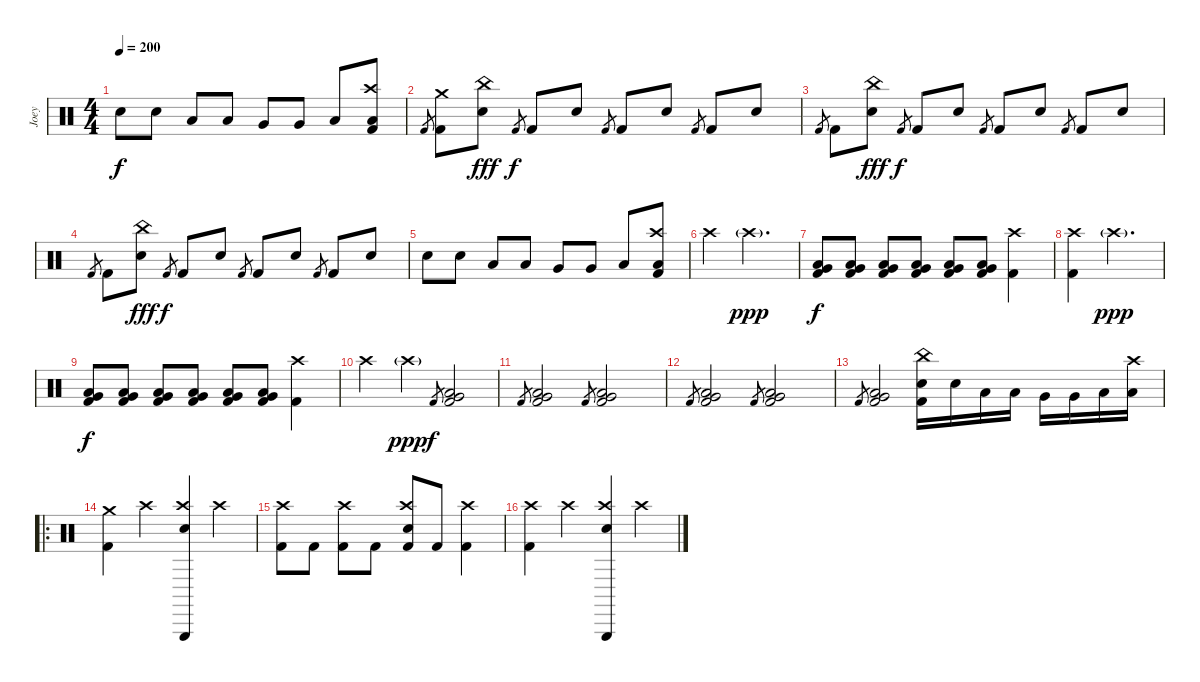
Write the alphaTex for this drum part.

\track ("Joey" "Joey") {instrument percussion}
\staff {score}
\articulation defaults
\ts (4 4)
\tempo 200
\clef neutral
\ks c "Electric Snare (hit)".8{dy f} "Electric Snare (hit)".8 "Low Tom (hit)".8 "Low Tom (hit)".8 "Very Low Tom (hit)".8 "Very Low Tom (hit)".8 "Low Floor Tom (hit)".8
("Crash high (hit)" "Low Floor Tom (hit)" "Kick (hit) 2").8 |
"Kick (hit) 2".8{gr} ("Crash medium (hit)" "Kick (hit) 2").8 ("China (hit)" "Electric Snare (hit)").8{dy fff} "Kick (hit) 2".8{gr dy f} "Kick (hit) 2".8 "Electric Snare (hit)".8 "Kick (hit) 2".8{gr} "Kick (hit) 2".8 "Electric Snare (hit)".8 "Kick (hit) 2".8{gr} "Kick (hit) 2".8 "Electric Snare (hit)".8 |
"Kick (hit) 2".8{gr} "Kick (hit) 2".8 ("China (hit)" "Electric Snare (hit)").8{dy fff} "Kick (hit) 2".8{gr dy f} "Kick (hit) 2".8 "Electric Snare (hit)".8 "Kick (hit) 2".8{gr} "Kick (hit) 2".8 "Electric Snare (hit)".8 "Kick (hit) 2".8{gr} "Kick (hit) 2".8 "Electric Snare (hit)".8 |
"Kick (hit) 2".8{gr} "Kick (hit) 2".8 ("China (hit)" "Electric Snare (hit)").8{dy fff} "Kick (hit) 2".8{gr dy f} "Kick (hit) 2".8 "Electric Snare (hit)".8 "Kick (hit) 2".8{gr} "Kick (hit) 2".8 "Electric Snare (hit)".8 "Kick (hit) 2".8{gr} "Kick (hit) 2".8 "Electric Snare (hit)".8 |
"Electric Snare (hit)".8 "Electric Snare (hit)".8 "Low Tom (hit)".8 "Low Tom (hit)".8 "Very Low Tom (hit)".8 "Very Low Tom (hit)".8 "Low Floor Tom (hit)".8 ("Crash high (hit)" "Low Floor Tom (hit)" "Kick (hit) 2").8 |
"Crash high (hit)".4 "Crash high (hit)"{g}.2{d dy ppp} |
("Low Tom (hit)" "Very Low Tom (hit)" "Kick (hit) 2").8{dy f} ("Low Tom (hit)" "Very Low Tom (hit)" "Kick (hit) 2").8 ("Low Tom (hit)" "Very Low Tom (hit)" "Kick (hit) 2").8 ("Low Tom (hit)" "Very Low Tom (hit)" "Kick (hit) 2").8 ("Low Tom (hit)" "Very Low Tom (hit)" "Kick (hit) 2").8 ("Low Tom (hit)" "Very Low Tom (hit)" "Kick (hit) 2").8 ("Crash high (hit)" "Kick (hit) 2").4 |
("Crash high (hit)" "Kick (hit) 2").4 "Crash high (hit)"{g}.2{d dy ppp} |
("Low Tom (hit)" "Very Low Tom (hit)" "Kick (hit) 2").8{dy f} ("Low Tom (hit)" "Very Low Tom (hit)" "Kick (hit) 2").8 ("Low Tom (hit)" "Very Low Tom (hit)" "Kick (hit) 2").8 ("Low Tom (hit)" "Very Low Tom (hit)" "Kick (hit) 2").8 ("Low Tom (hit)" "Very Low Tom (hit)" "Kick (hit) 2").8 ("Low Tom (hit)" "Very Low Tom (hit)" "Kick (hit) 2").8 ("Crash high (hit)" "Kick (hit) 2").4 |
"Crash high (hit)".4 "Crash high (hit)"{g}.4{dy ppp} "Kick (hit) 2".8{gr dy f} ("Low Tom (hit)" "Very Low Tom (hit)" "Kick (hit) 2").2 |
"Kick (hit) 2".8{gr} ("Low Tom (hit)" "Very Low Tom (hit)" "Kick (hit) 2").2 "Kick (hit) 2".8{gr} ("Low Tom (hit)" "Very Low Tom (hit)" "Kick (hit) 2").2 |
"Kick (hit) 2".8{gr} ("Low Tom (hit)" "Very Low Tom (hit)" "Kick (hit) 2").2 "Kick (hit) 2".8{gr} ("Low Tom (hit)" "Very Low Tom (hit)" "Kick (hit) 2").2 |
"Kick (hit) 2".8{gr} ("Low Tom (hit)" "Very Low Tom (hit)" "Kick (hit) 2").2 ("China (hit)" "Electric Snare (hit)" "Kick (hit) 2").16 "Electric Snare (hit)".16 "Low Tom (hit)".16 "Low Tom (hit)".16 "Very Low Tom (hit)".16 "Very Low Tom (hit)".16 "Low Floor Tom (hit)".16 ("Crash high (hit)" "Low Floor Tom (hit)").16 |
\ro
("Crash medium (hit)" "Kick (hit) 2").4 "Crash high (hit)".4 ("Crash high (hit)" "Triangle (hit)" "Electric Snare (hit)").4 "Crash high (hit)".4 |
("Crash high (hit)" "Kick (hit) 2").8 "Kick (hit) 2".8 ("Crash high (hit)" "Kick (hit) 2").8 "Kick (hit) 2".8 ("Crash high (hit)" "Electric Snare (hit)" "Kick (hit) 2").8 "Kick (hit) 2".8 ("Crash high (hit)" "Kick (hit) 2").4 |
("Crash high (hit)" "Kick (hit) 2").4 "Crash high (hit)".4 ("Crash high (hit)" "Triangle (hit)" "Electric Snare (hit)").4 "Crash high (hit)".4
